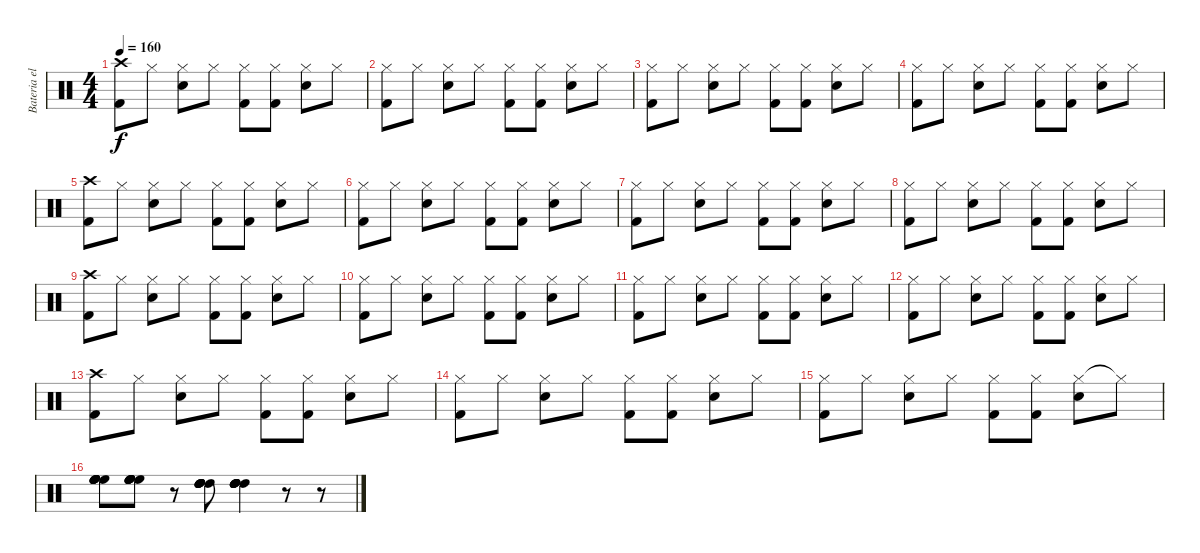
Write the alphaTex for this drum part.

\track ("Bateria electrica" "Bateria el") {instrument percussion}
\staff {score}
\articulation defaults
\ts (4 4)
\tempo 160
\clef neutral
\ks c
("Crash high (hit)" "Kick (hit) 2").8{dy f} "Hi-Hat (closed)".8 ("Hi-Hat (closed)" "Snare (hit) 2").8 "Hi-Hat (closed)".8 ("Hi-Hat (closed)" "Kick (hit) 2").8 ("Hi-Hat (closed)" "Kick (hit) 2").8 ("Hi-Hat (closed)" "Snare (hit) 2").8 "Hi-Hat (closed)".8 |
("Hi-Hat (closed)" "Kick (hit) 2").8 "Hi-Hat (closed)".8 ("Hi-Hat (closed)" "Snare (hit) 2").8 "Hi-Hat (closed)".8 ("Hi-Hat (closed)" "Kick (hit) 2").8 ("Hi-Hat (closed)" "Kick (hit) 2").8 ("Hi-Hat (closed)" "Snare (hit) 2").8 "Hi-Hat (closed)".8 |
("Hi-Hat (closed)" "Kick (hit) 2").8 "Hi-Hat (closed)".8 ("Hi-Hat (closed)" "Snare (hit) 2").8 "Hi-Hat (closed)".8 ("Hi-Hat (closed)" "Kick (hit) 2").8 ("Hi-Hat (closed)" "Kick (hit) 2").8 ("Hi-Hat (closed)" "Snare (hit) 2").8 "Hi-Hat (closed)".8 |
("Hi-Hat (closed)" "Kick (hit) 2").8 "Hi-Hat (closed)".8 ("Hi-Hat (closed)" "Snare (hit) 2").8 "Hi-Hat (closed)".8 ("Hi-Hat (closed)" "Kick (hit) 2").8 ("Hi-Hat (closed)" "Kick (hit) 2").8 ("Hi-Hat (closed)" "Snare (hit) 2").8 "Hi-Hat (closed)".8 |
("Crash high (hit)" "Kick (hit) 2").8 "Hi-Hat (closed)".8 ("Hi-Hat (closed)" "Snare (hit) 2").8 "Hi-Hat (closed)".8 ("Hi-Hat (closed)" "Kick (hit) 2").8 ("Hi-Hat (closed)" "Kick (hit) 2").8 ("Hi-Hat (closed)" "Snare (hit) 2").8 "Hi-Hat (closed)".8 |
("Hi-Hat (closed)" "Kick (hit) 2").8 "Hi-Hat (closed)".8 ("Hi-Hat (closed)" "Snare (hit) 2").8 "Hi-Hat (closed)".8 ("Hi-Hat (closed)" "Kick (hit) 2").8 ("Hi-Hat (closed)" "Kick (hit) 2").8 ("Hi-Hat (closed)" "Snare (hit) 2").8 "Hi-Hat (closed)".8 |
("Hi-Hat (closed)" "Kick (hit) 2").8 "Hi-Hat (closed)".8 ("Hi-Hat (closed)" "Snare (hit) 2").8 "Hi-Hat (closed)".8 ("Hi-Hat (closed)" "Kick (hit) 2").8 ("Hi-Hat (closed)" "Kick (hit) 2").8 ("Hi-Hat (closed)" "Snare (hit) 2").8 "Hi-Hat (closed)".8 |
("Hi-Hat (closed)" "Kick (hit) 2").8 "Hi-Hat (closed)".8 ("Hi-Hat (closed)" "Snare (hit) 2").8 "Hi-Hat (closed)".8 ("Hi-Hat (closed)" "Kick (hit) 2").8 ("Hi-Hat (closed)" "Kick (hit) 2").8 ("Hi-Hat (closed)" "Snare (hit) 2").8 "Hi-Hat (closed)".8 |
("Crash high (hit)" "Kick (hit) 2").8 "Hi-Hat (closed)".8 ("Hi-Hat (closed)" "Snare (hit) 2").8 "Hi-Hat (closed)".8 ("Hi-Hat (closed)" "Kick (hit) 2").8 ("Hi-Hat (closed)" "Kick (hit) 2").8 ("Hi-Hat (closed)" "Snare (hit) 2").8 "Hi-Hat (closed)".8 |
("Hi-Hat (closed)" "Kick (hit) 2").8 "Hi-Hat (closed)".8 ("Hi-Hat (closed)" "Snare (hit) 2").8 "Hi-Hat (closed)".8 ("Hi-Hat (closed)" "Kick (hit) 2").8 ("Hi-Hat (closed)" "Kick (hit) 2").8 ("Hi-Hat (closed)" "Snare (hit) 2").8 "Hi-Hat (closed)".8 |
("Hi-Hat (closed)" "Kick (hit) 2").8 "Hi-Hat (closed)".8 ("Hi-Hat (closed)" "Snare (hit) 2").8 "Hi-Hat (closed)".8 ("Hi-Hat (closed)" "Kick (hit) 2").8 ("Hi-Hat (closed)" "Kick (hit) 2").8 ("Hi-Hat (closed)" "Snare (hit) 2").8 "Hi-Hat (closed)".8 |
("Hi-Hat (closed)" "Kick (hit) 2").8 "Hi-Hat (closed)".8 ("Hi-Hat (closed)" "Snare (hit) 2").8 "Hi-Hat (closed)".8 ("Hi-Hat (closed)" "Kick (hit) 2").8 ("Hi-Hat (closed)" "Kick (hit) 2").8 ("Hi-Hat (closed)" "Snare (hit) 2").8 "Hi-Hat (closed)".8 |
("Crash high (hit)" "Kick (hit) 2").8 "Hi-Hat (closed)".8 ("Hi-Hat (closed)" "Snare (hit) 2").8 "Hi-Hat (closed)".8 ("Hi-Hat (closed)" "Kick (hit) 2").8 ("Hi-Hat (closed)" "Kick (hit) 2").8 ("Hi-Hat (closed)" "Snare (hit) 2").8 "Hi-Hat (closed)".8 |
("Hi-Hat (closed)" "Kick (hit) 2").8 "Hi-Hat (closed)".8 ("Hi-Hat (closed)" "Snare (hit) 2").8 "Hi-Hat (closed)".8 ("Hi-Hat (closed)" "Kick (hit) 2").8 ("Hi-Hat (closed)" "Kick (hit) 2").8 ("Hi-Hat (closed)" "Snare (hit) 2").8 "Hi-Hat (closed)".8 |
("Hi-Hat (closed)" "Kick (hit) 2").8 "Hi-Hat (closed)".8 ("Hi-Hat (closed)" "Snare (hit) 2").8 "Hi-Hat (closed)".8 ("Hi-Hat (closed)" "Kick (hit) 2").8 ("Hi-Hat (closed)" "Kick (hit) 2").8 ("Hi-Hat (closed)" "Snare (hit) 2").8 "Hi-Hat (closed)"{t}.8 |
("High Floor Tom (hit)" "High Floor Tom (hit)" "High Floor Tom (hit)" "High Floor Tom (hit)" "High Floor Tom (hit)" "High Floor Tom (hit)").8 ("High Floor Tom (hit)" "High Floor Tom (hit)" "High Floor Tom (hit)" "High Floor Tom (hit)" "High Floor Tom (hit)" "High Floor Tom (hit)").8 r.8 ("High Tom (hit)" "High Tom (hit)" "High Tom (hit)" "High Tom (hit)" "High Tom (hit)" "High Tom (hit)").8 ("High Tom (hit)" "High Tom (hit)" "High Tom (hit)" "High Tom (hit)" "High Tom (hit)" "High Tom (hit)").4 r.8 r.8
